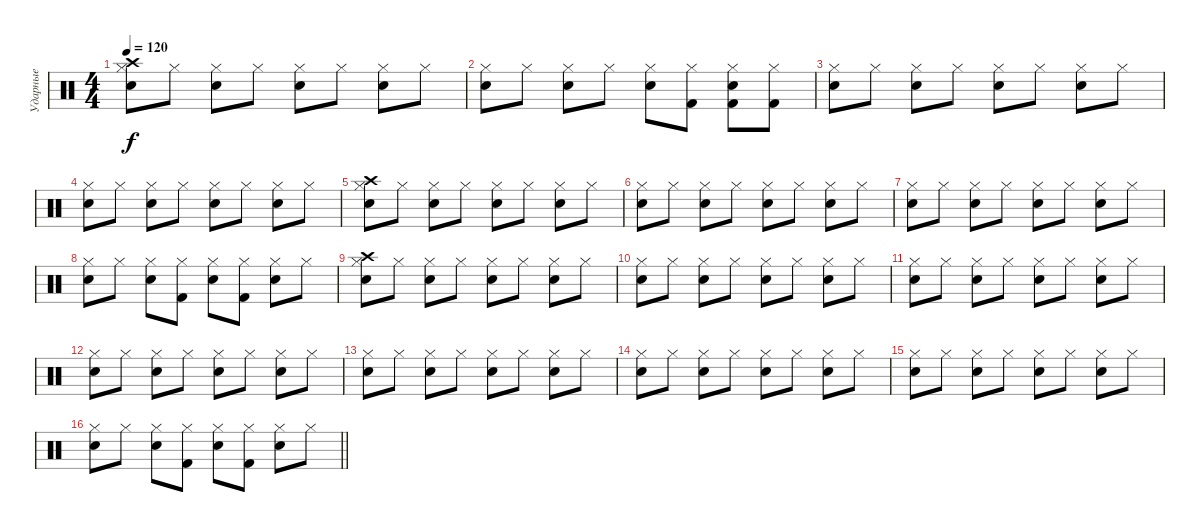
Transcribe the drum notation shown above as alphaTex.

\track ("Ударные" "Ударные") {instrument percussion}
\staff {score}
\articulation defaults
\ts (4 4)
\tempo 120
\clef neutral
\ks c
("Hi-Hat (closed)" "Crash high (hit)" "Snare (hit) 2").8{dy f} "Hi-Hat (closed)".8 ("Hi-Hat (closed)" "Snare (hit) 2").8 "Hi-Hat (closed)".8 ("Hi-Hat (closed)" "Snare (hit) 2").8 "Hi-Hat (closed)".8 ("Hi-Hat (closed)" "Snare (hit) 2").8 "Hi-Hat (closed)".8 |
("Hi-Hat (closed)" "Snare (hit) 2").8 "Hi-Hat (closed)".8 ("Hi-Hat (closed)" "Snare (hit) 2").8 "Hi-Hat (closed)".8 ("Hi-Hat (closed)" "Snare (hit) 2").8 ("Hi-Hat (closed)" "Kick (hit) 2").8 ("Hi-Hat (closed)" "Snare (hit) 2" "Kick (hit) 2").8 ("Hi-Hat (closed)" "Kick (hit) 2").8 |
("Hi-Hat (closed)" "Snare (hit) 2").8 "Hi-Hat (closed)".8 ("Hi-Hat (closed)" "Snare (hit) 2").8 "Hi-Hat (closed)".8 ("Hi-Hat (closed)" "Snare (hit) 2").8 "Hi-Hat (closed)".8 ("Hi-Hat (closed)" "Snare (hit) 2").8 "Hi-Hat (closed)".8 |
("Hi-Hat (closed)" "Snare (hit) 2").8 "Hi-Hat (closed)".8 ("Hi-Hat (closed)" "Snare (hit) 2").8 "Hi-Hat (closed)".8 ("Hi-Hat (closed)" "Snare (hit) 2").8 "Hi-Hat (closed)".8 ("Hi-Hat (closed)" "Snare (hit) 2").8 "Hi-Hat (closed)".8 |
("Hi-Hat (closed)" "Crash high (hit)" "Snare (hit) 2").8 "Hi-Hat (closed)".8 ("Hi-Hat (closed)" "Snare (hit) 2").8 "Hi-Hat (closed)".8 ("Hi-Hat (closed)" "Snare (hit) 2").8 "Hi-Hat (closed)".8 ("Hi-Hat (closed)" "Snare (hit) 2").8 "Hi-Hat (closed)".8 |
("Hi-Hat (closed)" "Snare (hit) 2").8 "Hi-Hat (closed)".8 ("Hi-Hat (closed)" "Snare (hit) 2").8 "Hi-Hat (closed)".8 ("Hi-Hat (closed)" "Snare (hit) 2").8 "Hi-Hat (closed)".8 ("Hi-Hat (closed)" "Snare (hit) 2").8 "Hi-Hat (closed)".8 |
("Hi-Hat (closed)" "Snare (hit) 2").8 "Hi-Hat (closed)".8 ("Hi-Hat (closed)" "Snare (hit) 2").8 "Hi-Hat (closed)".8 ("Hi-Hat (closed)" "Snare (hit) 2").8 "Hi-Hat (closed)".8 ("Hi-Hat (closed)" "Snare (hit) 2").8 "Hi-Hat (closed)".8 |
("Hi-Hat (closed)" "Snare (hit) 2").8 "Hi-Hat (closed)".8 ("Hi-Hat (closed)" "Snare (hit) 2").8 ("Hi-Hat (closed)" "Kick (hit) 2").8 ("Hi-Hat (closed)" "Snare (hit) 2").8 ("Hi-Hat (closed)" "Kick (hit) 2").8 ("Hi-Hat (closed)" "Snare (hit) 2").8 "Hi-Hat (closed)".8 |
("Hi-Hat (closed)" "Crash high (hit)" "Snare (hit) 2").8 "Hi-Hat (closed)".8 ("Hi-Hat (closed)" "Snare (hit) 2").8 "Hi-Hat (closed)".8 ("Hi-Hat (closed)" "Snare (hit) 2").8 "Hi-Hat (closed)".8 ("Hi-Hat (closed)" "Snare (hit) 2").8 "Hi-Hat (closed)".8 |
("Hi-Hat (closed)" "Snare (hit) 2").8 "Hi-Hat (closed)".8 ("Hi-Hat (closed)" "Snare (hit) 2").8 "Hi-Hat (closed)".8 ("Hi-Hat (closed)" "Snare (hit) 2").8 "Hi-Hat (closed)".8 ("Hi-Hat (closed)" "Snare (hit) 2").8 "Hi-Hat (closed)".8 |
("Hi-Hat (closed)" "Snare (hit) 2").8 "Hi-Hat (closed)".8 ("Hi-Hat (closed)" "Snare (hit) 2").8 "Hi-Hat (closed)".8 ("Hi-Hat (closed)" "Snare (hit) 2").8 "Hi-Hat (closed)".8 ("Hi-Hat (closed)" "Snare (hit) 2").8 "Hi-Hat (closed)".8 |
("Hi-Hat (closed)" "Snare (hit) 2").8 "Hi-Hat (closed)".8 ("Hi-Hat (closed)" "Snare (hit) 2").8 "Hi-Hat (closed)".8 ("Hi-Hat (closed)" "Snare (hit) 2").8 "Hi-Hat (closed)".8 ("Hi-Hat (closed)" "Snare (hit) 2").8 "Hi-Hat (closed)".8 |
("Hi-Hat (closed)" "Snare (hit) 2").8 "Hi-Hat (closed)".8 ("Hi-Hat (closed)" "Snare (hit) 2").8 "Hi-Hat (closed)".8 ("Hi-Hat (closed)" "Snare (hit) 2").8 "Hi-Hat (closed)".8 ("Hi-Hat (closed)" "Snare (hit) 2").8 "Hi-Hat (closed)".8 |
("Hi-Hat (closed)" "Snare (hit) 2").8 "Hi-Hat (closed)".8 ("Hi-Hat (closed)" "Snare (hit) 2").8 "Hi-Hat (closed)".8 ("Hi-Hat (closed)" "Snare (hit) 2").8 "Hi-Hat (closed)".8 ("Hi-Hat (closed)" "Snare (hit) 2").8 "Hi-Hat (closed)".8 |
("Hi-Hat (closed)" "Snare (hit) 2").8 "Hi-Hat (closed)".8 ("Hi-Hat (closed)" "Snare (hit) 2").8 "Hi-Hat (closed)".8 ("Hi-Hat (closed)" "Snare (hit) 2").8 "Hi-Hat (closed)".8 ("Hi-Hat (closed)" "Snare (hit) 2").8 "Hi-Hat (closed)".8 |
\barLineRight lightlight
("Hi-Hat (closed)" "Snare (hit) 2").8 "Hi-Hat (closed)".8 ("Hi-Hat (closed)" "Snare (hit) 2").8 ("Hi-Hat (closed)" "Kick (hit) 2").8 ("Hi-Hat (closed)" "Snare (hit) 2").8 ("Hi-Hat (closed)" "Kick (hit) 2").8 ("Hi-Hat (closed)" "Snare (hit) 2").8 "Hi-Hat (closed)".8
